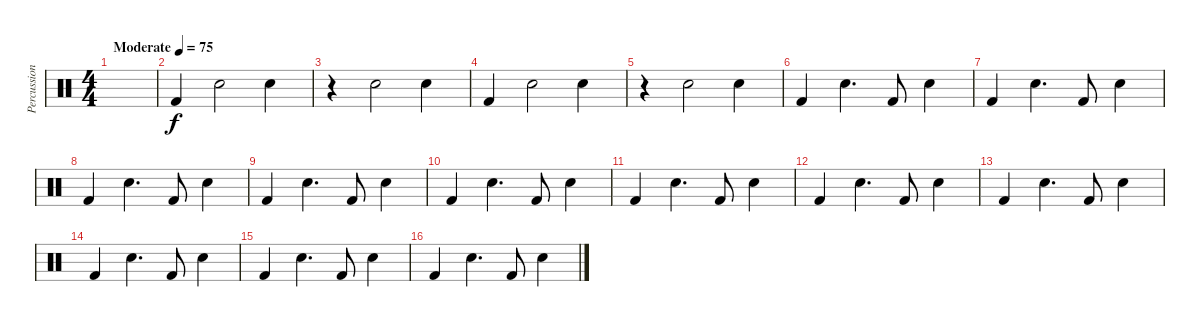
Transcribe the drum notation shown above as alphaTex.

\track ("Percussion" "Percussion") {instrument percussion}
\staff {score}
\articulation defaults
\ts (4 4)
\tempo (75 "Moderate")
\clef neutral
\ks c
|
"Kick (hit) 2".4 "Hand Clap (hit)".2 "Hand Clap (hit)".4 |
r.4 "Hand Clap (hit)".2 "Hand Clap (hit)".4 |
"Kick (hit) 2".4 "Hand Clap (hit)".2 "Hand Clap (hit)".4 |
r.4 "Hand Clap (hit)".2 "Hand Clap (hit)".4 |
"Kick (hit) 2".4 "Hand Clap (hit)".4{d} "Kick (hit) 2".8 "Hand Clap (hit)".4 |
"Kick (hit) 2".4 "Hand Clap (hit)".4{d} "Kick (hit) 2".8 "Hand Clap (hit)".4 |
"Kick (hit) 2".4 "Hand Clap (hit)".4{d} "Kick (hit) 2".8 "Hand Clap (hit)".4 |
"Kick (hit) 2".4 "Hand Clap (hit)".4{d} "Kick (hit) 2".8 "Hand Clap (hit)".4 |
"Kick (hit) 2".4 "Hand Clap (hit)".4{d} "Kick (hit) 2".8 "Hand Clap (hit)".4 |
"Kick (hit) 2".4 "Hand Clap (hit)".4{d} "Kick (hit) 2".8 "Hand Clap (hit)".4 |
"Kick (hit) 2".4 "Hand Clap (hit)".4{d} "Kick (hit) 2".8 "Hand Clap (hit)".4 |
"Kick (hit) 2".4 "Hand Clap (hit)".4{d} "Kick (hit) 2".8 "Hand Clap (hit)".4 |
"Kick (hit) 2".4 "Hand Clap (hit)".4{d} "Kick (hit) 2".8 "Hand Clap (hit)".4 |
"Kick (hit) 2".4 "Hand Clap (hit)".4{d} "Kick (hit) 2".8 "Hand Clap (hit)".4 |
"Kick (hit) 2".4 "Hand Clap (hit)".4{d} "Kick (hit) 2".8 "Hand Clap (hit)".4
